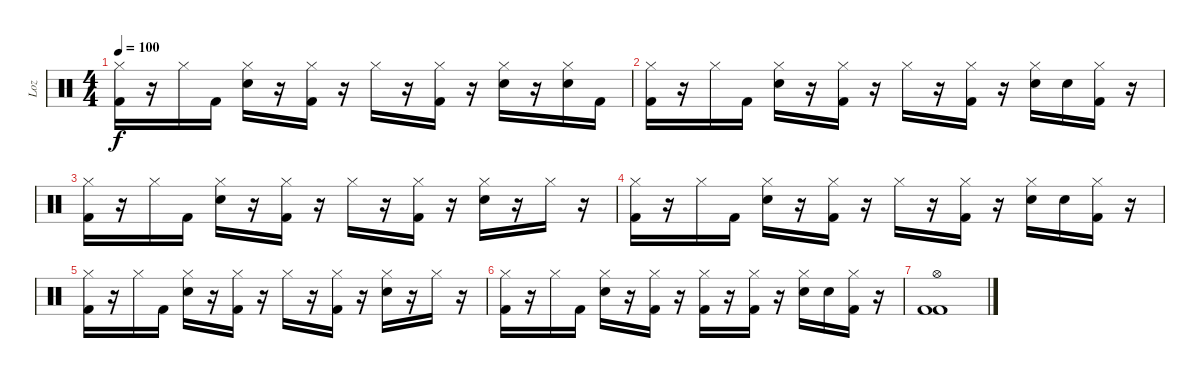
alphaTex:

\track ("Loz" "Loz") {instrument percussion}
\staff {score}
\articulation defaults
\ts (4 4)
\tempo 100
\clef neutral
\ks c
("Hi-Hat (closed)" "Kick (hit) 2").16{dy f} r.16 "Hi-Hat (closed)".16 "Kick (hit) 2".16 ("Hi-Hat (closed)" "Electric Snare (hit)").16 r.16 ("Hi-Hat (closed)" "Kick (hit) 2").16 r.16 "Hi-Hat (closed)".16 r.16 ("Hi-Hat (closed)" "Kick (hit) 2").16 r.16 ("Hi-Hat (closed)" "Electric Snare (hit)").16 r.16 ("Hi-Hat (closed)" "Electric Snare (hit)").16 "Kick (hit) 2".16 |
("Hi-Hat (closed)" "Kick (hit) 2").16 r.16 "Hi-Hat (closed)".16 "Kick (hit) 2".16 ("Hi-Hat (closed)" "Electric Snare (hit)").16 r.16 ("Hi-Hat (closed)" "Kick (hit) 2").16 r.16 "Hi-Hat (closed)".16 r.16 ("Hi-Hat (closed)" "Kick (hit) 2").16 r.16 ("Hi-Hat (closed)" "Electric Snare (hit)").16 "Electric Snare (hit)".16 ("Hi-Hat (closed)" "Kick (hit) 2").16 r.16 |
("Hi-Hat (closed)" "Kick (hit) 2").16 r.16 "Hi-Hat (closed)".16 "Kick (hit) 2".16 ("Hi-Hat (closed)" "Electric Snare (hit)").16 r.16 ("Hi-Hat (closed)" "Kick (hit) 2").16 r.16 "Hi-Hat (closed)".16 r.16 ("Hi-Hat (closed)" "Kick (hit) 2").16 r.16 ("Hi-Hat (closed)" "Electric Snare (hit)").16 r.16 "Hi-Hat (closed)".16 r.16 |
("Hi-Hat (closed)" "Kick (hit) 2").16 r.16 "Hi-Hat (closed)".16 "Kick (hit) 2".16 ("Hi-Hat (closed)" "Electric Snare (hit)").16 r.16 ("Hi-Hat (closed)" "Kick (hit) 2").16 r.16 "Hi-Hat (closed)".16 r.16 ("Hi-Hat (closed)" "Kick (hit) 2").16 r.16 ("Hi-Hat (closed)" "Electric Snare (hit)").16 "Electric Snare (hit)".16 ("Hi-Hat (closed)" "Kick (hit) 2").16 r.16 |
("Hi-Hat (closed)" "Kick (hit) 2").16 r.16 "Hi-Hat (closed)".16 "Kick (hit) 2".16 ("Hi-Hat (closed)" "Electric Snare (hit)").16 r.16 ("Hi-Hat (closed)" "Kick (hit) 2").16 r.16 "Hi-Hat (closed)".16 r.16 ("Hi-Hat (closed)" "Kick (hit) 2").16 r.16 ("Hi-Hat (closed)" "Electric Snare (hit)").16 r.16 "Hi-Hat (closed)".16 r.16 |
("Hi-Hat (closed)" "Kick (hit) 2").16 r.16 "Hi-Hat (closed)".16 "Kick (hit) 2".16 ("Hi-Hat (closed)" "Electric Snare (hit)").16 r.16 ("Hi-Hat (closed)" "Kick (hit) 2").16 r.16 ("Hi-Hat (closed)" "Kick (hit) 2").16 r.16 ("Hi-Hat (closed)" "Kick (hit) 2").16 r.16 ("Hi-Hat (closed)" "Electric Snare (hit)").16 "Electric Snare (hit)".16 ("Hi-Hat (closed)" "Kick (hit) 2").16 r.16 |
("Hi-Hat (open)" "Kick (hit) 2" "Kick (hit) 2").1
